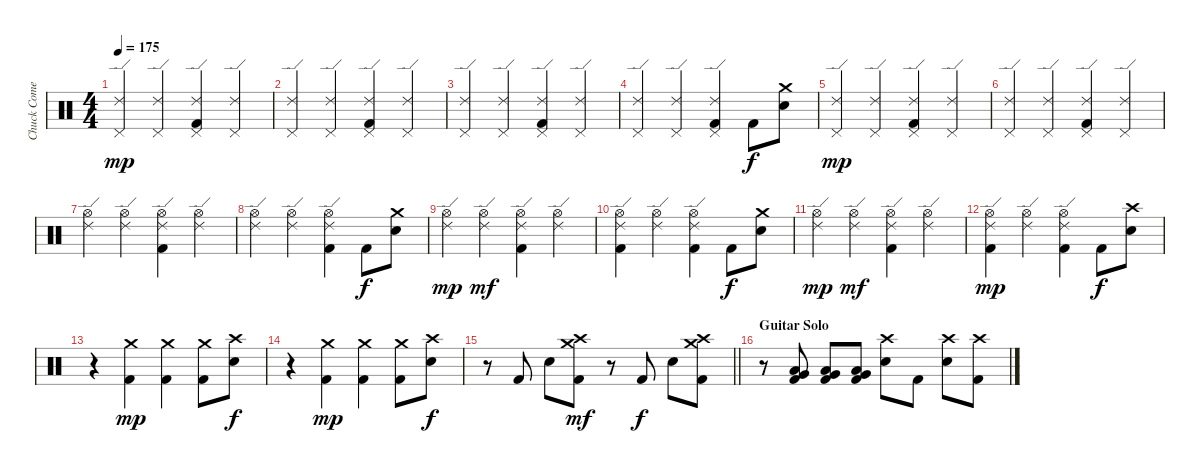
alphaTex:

\track ("Chuck Comeau" "Chuck Come") {instrument percussion}
\staff {score}
\articulation defaults
\ts (4 4)
\tempo 175
\clef neutral
\ks c
("Pedal Hi-Hat (hit)" "Ride (edge) 2").4{dy mp} ("Pedal Hi-Hat (hit)" "Ride (edge) 2").4 ("Pedal Hi-Hat (hit)" "Ride (edge) 2" "Kick (hit) 2").4 ("Pedal Hi-Hat (hit)" "Ride (edge) 2").4 |
("Pedal Hi-Hat (hit)" "Ride (edge) 2").4 ("Pedal Hi-Hat (hit)" "Ride (edge) 2").4 ("Pedal Hi-Hat (hit)" "Ride (edge) 2" "Kick (hit) 2").4 ("Pedal Hi-Hat (hit)" "Ride (edge) 2").4 |
("Pedal Hi-Hat (hit)" "Ride (edge) 2").4 ("Pedal Hi-Hat (hit)" "Ride (edge) 2").4 ("Pedal Hi-Hat (hit)" "Ride (edge) 2" "Kick (hit) 2").4 ("Pedal Hi-Hat (hit)" "Ride (edge) 2").4 |
("Pedal Hi-Hat (hit)" "Ride (edge) 2").4 ("Pedal Hi-Hat (hit)" "Ride (edge) 2").4 ("Pedal Hi-Hat (hit)" "Ride (edge) 2" "Kick (hit) 2").4 "Kick (hit) 2".8{dy f} ("Crash medium (hit)" "Electric Snare (hit)").8 |
("Pedal Hi-Hat (hit)" "Ride (edge) 2").4{dy mp} ("Pedal Hi-Hat (hit)" "Ride (edge) 2").4 ("Pedal Hi-Hat (hit)" "Ride (edge) 2" "Kick (hit) 2").4 ("Pedal Hi-Hat (hit)" "Ride (edge) 2").4 |
("Pedal Hi-Hat (hit)" "Ride (edge) 2").4 ("Pedal Hi-Hat (hit)" "Ride (edge) 2").4 ("Pedal Hi-Hat (hit)" "Ride (edge) 2" "Kick (hit) 2").4 ("Pedal Hi-Hat (hit)" "Ride (edge) 2").4 |
("Hi-Hat (open)" "Ride (edge) 2").4 ("Hi-Hat (open)" "Ride (edge) 2").4 ("Hi-Hat (open)" "Ride (edge) 2" "Kick (hit) 2").4 ("Hi-Hat (open)" "Ride (edge) 2").4 |
("Hi-Hat (open)" "Ride (edge) 2").4 ("Hi-Hat (open)" "Ride (edge) 2").4 ("Hi-Hat (open)" "Ride (edge) 2" "Kick (hit) 2").4 "Kick (hit) 2".8{dy f} ("Crash medium (hit)" "Electric Snare (hit)").8 |
("Hi-Hat (open)" "Ride (edge) 2").4{dy mp} ("Hi-Hat (open)" "Ride (edge) 2").4{dy mf} ("Hi-Hat (open)" "Ride (edge) 2" "Kick (hit) 2").4 ("Hi-Hat (open)" "Ride (edge) 2").4 |
("Hi-Hat (open)" "Ride (edge) 2" "Kick (hit) 2").4 ("Hi-Hat (open)" "Ride (edge) 2").4 ("Hi-Hat (open)" "Ride (edge) 2" "Kick (hit) 2").4 "Kick (hit) 2".8{dy f} ("Crash medium (hit)" "Electric Snare (hit)").8 |
("Hi-Hat (open)" "Ride (edge) 2").4{dy mp} ("Hi-Hat (open)" "Ride (edge) 2").4{dy mf} ("Hi-Hat (open)" "Ride (edge) 2" "Kick (hit) 2").4 ("Hi-Hat (open)" "Ride (edge) 2").4 |
("Hi-Hat (open)" "Ride (edge) 2" "Kick (hit) 2").4{dy mp} ("Hi-Hat (open)" "Ride (edge) 2").4 ("Hi-Hat (open)" "Ride (edge) 2" "Kick (hit) 2").4 "Kick (hit) 2".8{dy f} ("Crash high (hit)" "Electric Snare (hit)").8 |
r.4 ("Crash medium (hit)" "Kick (hit) 2").4{dy mp} ("Crash medium (hit)" "Kick (hit) 2").4 ("Crash medium (hit)" "Kick (hit) 2").8 ("Crash high (hit)" "Electric Snare (hit)").8{dy f} |
r.4 ("Crash medium (hit)" "Kick (hit) 2").4{dy mp} ("Crash medium (hit)" "Kick (hit) 2").4 ("Crash medium (hit)" "Kick (hit) 2").8 ("Crash high (hit)" "Electric Snare (hit)").8{dy f} |
\barLineRight lightlight
r.8 "Kick (hit) 2".8 "Electric Snare (hit)".8 ("Crash high (hit)" "Crash medium (hit)" "Kick (hit) 2").8{dy mf} r.8 "Kick (hit) 2".8{dy f} "Electric Snare (hit)".8 ("Crash medium (hit)" "Crash high (hit)" "Kick (hit) 2").8 |
\section ("" "Guitar Solo")
r.8 ("Low Tom (hit)" "Very Low Tom (hit)" "Kick (hit) 2").8 ("Low Tom (hit)" "Very Low Tom (hit)" "Kick (hit) 2").8 ("Low Tom (hit)" "Very Low Tom (hit)" "Kick (hit) 2").8 ("Crash high (hit)" "Electric Snare (hit)").8 "Kick (hit) 2".8 ("Crash high (hit)" "Electric Snare (hit)").8 ("Crash high (hit)" "Kick (hit) 2").8
